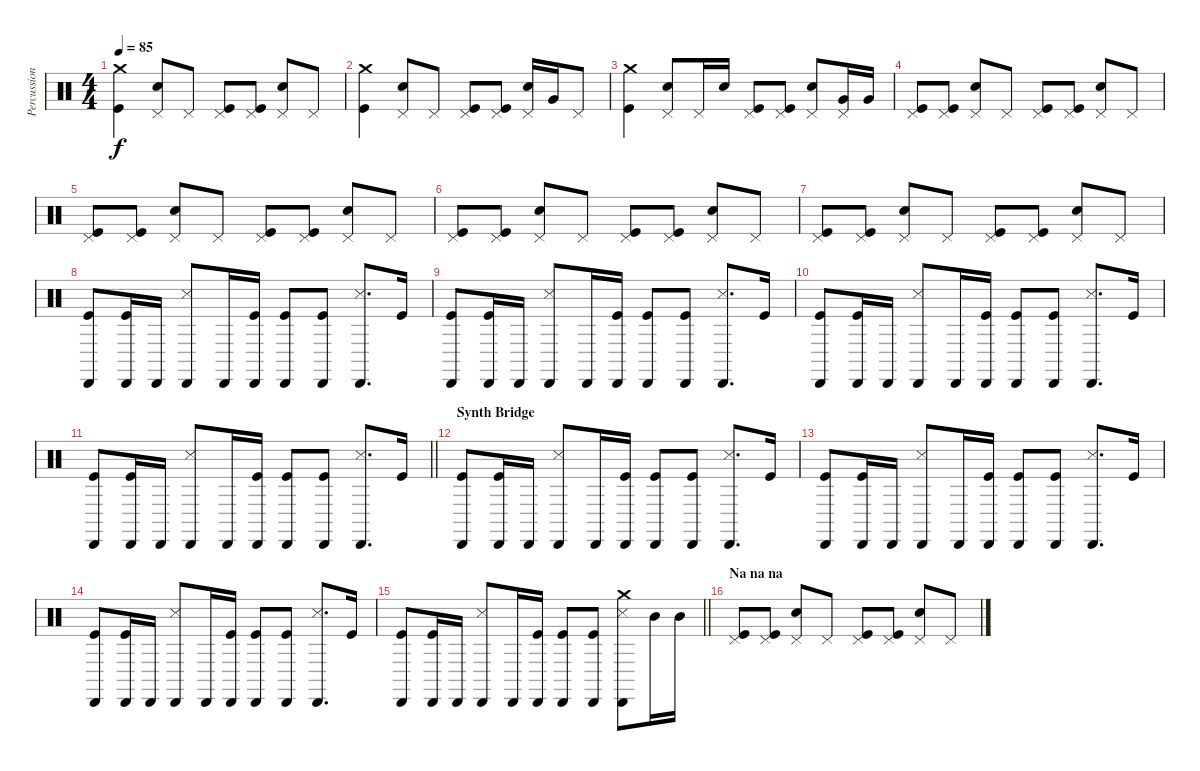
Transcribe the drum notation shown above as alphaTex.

\track ("Percussion" "Percussion") {instrument percussion}
\staff {score}
\articulation defaults
\ts (4 4)
\tempo 85
\clef neutral
\ks c
("Crash medium (hit)" "Kick (hit)").4{dy f} ("Pedal Hi-Hat (hit)" "Snare (hit) 2").8 "Pedal Hi-Hat (hit)".8 ("Pedal Hi-Hat (hit)" "Kick (hit)").8 ("Pedal Hi-Hat (hit)" "Kick (hit)").8 ("Pedal Hi-Hat (hit)" "Snare (hit) 2").8 "Pedal Hi-Hat (hit)".8 |
("Crash medium (hit)" "Kick (hit)").4 ("Pedal Hi-Hat (hit)" "Snare (hit) 2").8 "Pedal Hi-Hat (hit)".8 ("Pedal Hi-Hat (hit)" "Kick (hit)").8 ("Pedal Hi-Hat (hit)" "Kick (hit)").8 ("Pedal Hi-Hat (hit)" "Snare (hit) 2").16 "Very Low Tom (hit)".16 "Pedal Hi-Hat (hit)".8 |
("Crash medium (hit)" "Kick (hit)").4 ("Pedal Hi-Hat (hit)" "Snare (hit) 2").8 "Pedal Hi-Hat (hit)".16 "Snare (hit) 2".16 ("Pedal Hi-Hat (hit)" "Kick (hit)").8 ("Pedal Hi-Hat (hit)" "Kick (hit)").8 ("Pedal Hi-Hat (hit)" "Snare (hit) 2").8 ("Pedal Hi-Hat (hit)" "Very Low Tom (hit)").16 "Very Low Tom (hit)".16 |
("Pedal Hi-Hat (hit)" "Kick (hit)").8 ("Pedal Hi-Hat (hit)" "Kick (hit)").8 ("Pedal Hi-Hat (hit)" "Snare (hit) 2").8 "Pedal Hi-Hat (hit)".8 ("Pedal Hi-Hat (hit)" "Kick (hit)").8 ("Pedal Hi-Hat (hit)" "Kick (hit)").8 ("Pedal Hi-Hat (hit)" "Snare (hit) 2").8 "Pedal Hi-Hat (hit)".8 |
("Pedal Hi-Hat (hit)" "Kick (hit)").8 ("Pedal Hi-Hat (hit)" "Kick (hit)").8 ("Pedal Hi-Hat (hit)" "Snare (hit) 2").8 "Pedal Hi-Hat (hit)".8 ("Pedal Hi-Hat (hit)" "Kick (hit)").8 ("Pedal Hi-Hat (hit)" "Kick (hit)").8 ("Pedal Hi-Hat (hit)" "Snare (hit) 2").8 "Pedal Hi-Hat (hit)".8 |
("Pedal Hi-Hat (hit)" "Kick (hit)").8 ("Pedal Hi-Hat (hit)" "Kick (hit)").8 ("Pedal Hi-Hat (hit)" "Snare (hit) 2").8 "Pedal Hi-Hat (hit)".8 ("Pedal Hi-Hat (hit)" "Kick (hit)").8 ("Pedal Hi-Hat (hit)" "Kick (hit)").8 ("Pedal Hi-Hat (hit)" "Snare (hit) 2").8 "Pedal Hi-Hat (hit)".8 |
("Pedal Hi-Hat (hit)" "Kick (hit)").8 ("Pedal Hi-Hat (hit)" "Kick (hit)").8 ("Pedal Hi-Hat (hit)" "Snare (hit) 2").8 "Pedal Hi-Hat (hit)".8 ("Pedal Hi-Hat (hit)" "Kick (hit)").8 ("Pedal Hi-Hat (hit)" "Kick (hit)").8 ("Pedal Hi-Hat (hit)" "Snare (hit) 2").8 "Pedal Hi-Hat (hit)".8 |
("Cabasa (hit)" "Kick (hit)").8 ("Cabasa (hit)" "Kick (hit)").16 "Cabasa (hit)".16 ("Snare (side stick) 3" "Cabasa (hit)").8 "Cabasa (hit)".16 ("Cabasa (hit)" "Kick (hit)").16 ("Cabasa (hit)" "Kick (hit)").8 ("Cabasa (hit)" "Kick (hit)").8 ("Snare (side stick) 3" "Cabasa (hit)").8{d} "Kick (hit)".16 |
("Cabasa (hit)" "Kick (hit)").8 ("Cabasa (hit)" "Kick (hit)").16 "Cabasa (hit)".16 ("Snare (side stick) 3" "Cabasa (hit)").8 "Cabasa (hit)".16 ("Cabasa (hit)" "Kick (hit)").16 ("Cabasa (hit)" "Kick (hit)").8 ("Cabasa (hit)" "Kick (hit)").8 ("Snare (side stick) 3" "Cabasa (hit)").8{d} "Kick (hit)".16 |
("Cabasa (hit)" "Kick (hit)").8 ("Cabasa (hit)" "Kick (hit)").16 "Cabasa (hit)".16 ("Snare (side stick) 3" "Cabasa (hit)").8 "Cabasa (hit)".16 ("Cabasa (hit)" "Kick (hit)").16 ("Cabasa (hit)" "Kick (hit)").8 ("Cabasa (hit)" "Kick (hit)").8 ("Snare (side stick) 3" "Cabasa (hit)").8{d} "Kick (hit)".16 |
\barLineRight lightlight
("Cabasa (hit)" "Kick (hit)").8 ("Cabasa (hit)" "Kick (hit)").16 "Cabasa (hit)".16 ("Snare (side stick) 3" "Cabasa (hit)").8 "Cabasa (hit)".16 ("Cabasa (hit)" "Kick (hit)").16 ("Cabasa (hit)" "Kick (hit)").8 ("Cabasa (hit)" "Kick (hit)").8 ("Snare (side stick) 3" "Cabasa (hit)").8{d} "Kick (hit)".16 |
\section ("" "Synth Bridge")
("Cabasa (hit)" "Kick (hit)").8 ("Cabasa (hit)" "Kick (hit)").16 "Cabasa (hit)".16 ("Snare (side stick) 3" "Cabasa (hit)").8 "Cabasa (hit)".16 ("Cabasa (hit)" "Kick (hit)").16 ("Cabasa (hit)" "Kick (hit)").8 ("Cabasa (hit)" "Kick (hit)").8 ("Snare (side stick) 3" "Cabasa (hit)").8{d} "Kick (hit)".16 |
("Cabasa (hit)" "Kick (hit)").8 ("Cabasa (hit)" "Kick (hit)").16 "Cabasa (hit)".16 ("Snare (side stick) 3" "Cabasa (hit)").8 "Cabasa (hit)".16 ("Cabasa (hit)" "Kick (hit)").16 ("Cabasa (hit)" "Kick (hit)").8 ("Cabasa (hit)" "Kick (hit)").8 ("Snare (side stick) 3" "Cabasa (hit)").8{d} "Kick (hit)".16 |
("Cabasa (hit)" "Kick (hit)").8 ("Cabasa (hit)" "Kick (hit)").16 "Cabasa (hit)".16 ("Snare (side stick) 3" "Cabasa (hit)").8 "Cabasa (hit)".16 ("Cabasa (hit)" "Kick (hit)").16 ("Cabasa (hit)" "Kick (hit)").8 ("Cabasa (hit)" "Kick (hit)").8 ("Snare (side stick) 3" "Cabasa (hit)").8{d} "Kick (hit)".16 |
\barLineRight lightlight
("Cabasa (hit)" "Kick (hit)").8 ("Cabasa (hit)" "Kick (hit)").16 "Cabasa (hit)".16 ("Snare (side stick) 3" "Cabasa (hit)").8 "Cabasa (hit)".16 ("Cabasa (hit)" "Kick (hit)").16 ("Cabasa (hit)" "Kick (hit)").8 ("Cabasa (hit)" "Kick (hit)").8 ("Crash medium (hit)" "Snare (side stick) 3" "Cabasa (hit)").8 "Mid Tom (hit)".16 "Mid Tom (hit)".16 |
\section ("" "Na na na")
("Pedal Hi-Hat (hit)" "Kick (hit)").8 ("Pedal Hi-Hat (hit)" "Kick (hit)").8 ("Pedal Hi-Hat (hit)" "Snare (hit) 2").8 "Pedal Hi-Hat (hit)".8 ("Pedal Hi-Hat (hit)" "Kick (hit)").8 ("Pedal Hi-Hat (hit)" "Kick (hit)").8 ("Pedal Hi-Hat (hit)" "Snare (hit) 2").8 "Pedal Hi-Hat (hit)".8
